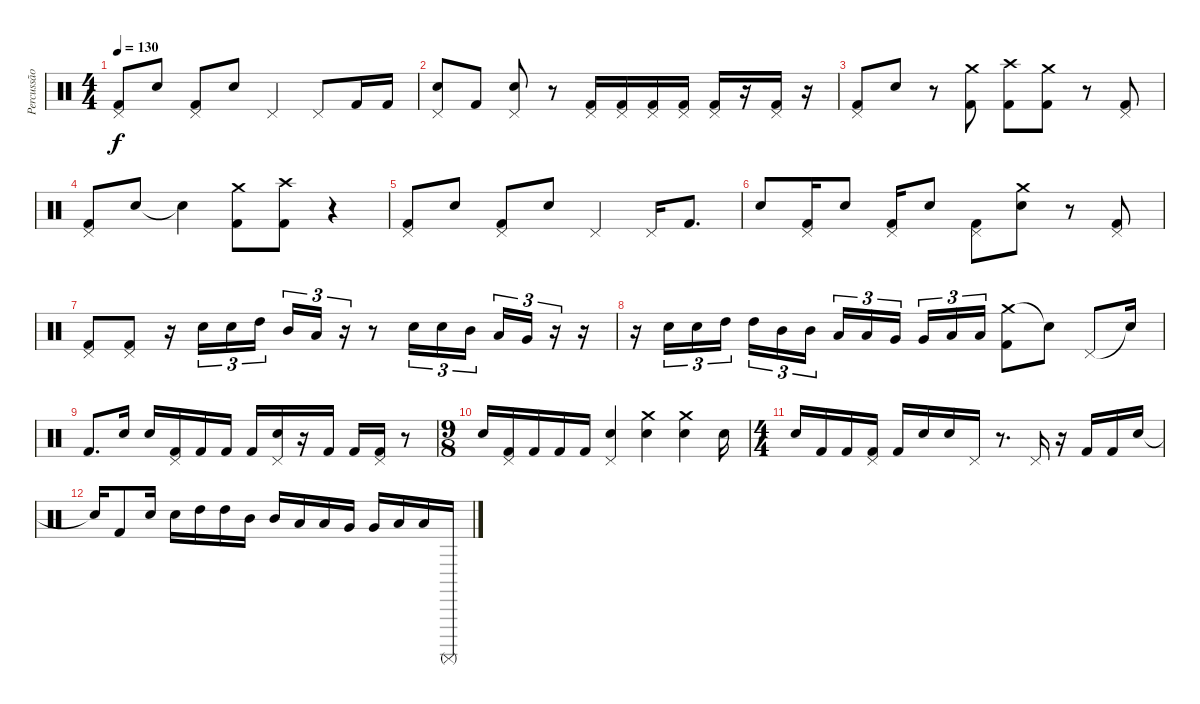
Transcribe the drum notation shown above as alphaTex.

\track ("Percussão" "Percussão") {instrument percussion}
\staff {score}
\articulation defaults
\ts (4 4)
\tempo 130
\clef neutral
\ks c
("Pedal Hi-Hat (hit)" "Kick (hit) 2").8{dy f} "Electric Snare (hit)".8 ("Pedal Hi-Hat (hit)" "Kick (hit) 2").8 "Electric Snare (hit)".8 "Pedal Hi-Hat (hit)".4 "Pedal Hi-Hat (hit)".8 "Kick (hit) 2".16 "Kick (hit) 2".16 |
("Pedal Hi-Hat (hit)" "Electric Snare (hit)").8 "Kick (hit) 2".8 ("Pedal Hi-Hat (hit)" "Electric Snare (hit)").8 r.8 ("Pedal Hi-Hat (hit)" "Kick (hit) 2").16 ("Pedal Hi-Hat (hit)" "Kick (hit) 2").16 ("Pedal Hi-Hat (hit)" "Kick (hit) 2").16 ("Pedal Hi-Hat (hit)" "Kick (hit) 2").16 ("Pedal Hi-Hat (hit)" "Kick (hit) 2").16 r.16 ("Pedal Hi-Hat (hit)" "Kick (hit) 2").16 r.16 |
("Pedal Hi-Hat (hit)" "Kick (hit) 2").8 "Electric Snare (hit)".8 r.8 ("Crash medium (hit)" "Kick (hit) 2").8 ("Crash high (hit)" "Kick (hit) 2").8 ("Crash medium (hit)" "Kick (hit) 2").8 r.8 ("Pedal Hi-Hat (hit)" "Kick (hit) 2").8 |
("Pedal Hi-Hat (hit)" "Kick (hit) 2").8 "Electric Snare (hit)".8 "Snare (hit)"{t}.4 ("Crash medium (hit)" "Kick (hit) 2").8 ("Crash high (hit)" "Kick (hit) 2").8 r.4 |
("Pedal Hi-Hat (hit)" "Kick (hit) 2").8 "Electric Snare (hit)".8 ("Pedal Hi-Hat (hit)" "Kick (hit) 2").8 "Electric Snare (hit)".8 "Pedal Hi-Hat (hit)".4 "Pedal Hi-Hat (hit)".16 "Kick (hit) 2".8{d} |
"Electric Snare (hit)".8 ("Pedal Hi-Hat (hit)" "Kick (hit) 2").16 "Electric Snare (hit)".8 ("Pedal Hi-Hat (hit)" "Kick (hit) 2").16 "Electric Snare (hit)".8 ("Pedal Hi-Hat (hit)" "Kick (hit) 2").8 ("Crash medium (hit)" "Electric Snare (hit)").8 r.8 ("Pedal Hi-Hat (hit)" "Kick (hit) 2").8 |
("Pedal Hi-Hat (hit)" "Kick (hit) 2").8 ("Pedal Hi-Hat (hit)" "Kick (hit) 2").8 r.16 "Electric Snare (hit)".16{tu (3 2)} "Electric Snare (hit)".16{tu (3 2)} "High Tom (hit)".16{tu (3 2) beam splitsecondary} "Mid Tom (hit)".16{tu (3 2)} "Low Tom (hit)".16{tu (3 2)} r.16{tu (3 2)} r.8 "Electric Snare (hit)".16{tu (3 2)} "Electric Snare (hit)".16{tu (3 2)} "Mid Tom (hit)".16{tu (3 2) beam splitsecondary} "Low Tom (hit)".16{tu (3 2)} "Very Low Tom (hit)".16{tu (3 2)} r.16{tu (3 2)} r.16 |
r.16 "Electric Snare (hit)".16{tu (3 2)} "Electric Snare (hit)".16{tu (3 2)} "High Tom (hit)".16{tu (3 2) beam splitsecondary} "High Tom (hit)".16{tu (3 2)} "Mid Tom (hit)".16{tu (3 2)} "Mid Tom (hit)".16{tu (3 2) beam splitsecondary} "Low Tom (hit)".16{tu (3 2)} "Low Tom (hit)".16{tu (3 2)} "Very Low Tom (hit)".16{tu (3 2) beam splitsecondary} "Very Low Tom (hit)".16{tu (3 2)} "Low Floor Tom (hit)".16{tu (3 2)} "Low Floor Tom (hit)".16{tu (3 2)} ("Crash medium (hit)" "Kick (hit) 2").8 "Snare (hit)"{t}.8 "Pedal Hi-Hat (hit)".8 "Snare (hit)"{t}.16 |
"Kick (hit) 2".8{d} "Electric Snare (hit)".16 "Electric Snare (hit)".16 ("Pedal Hi-Hat (hit)" "Kick (hit) 2").16 "Kick (hit) 2".16 "Kick (hit) 2".16 "Kick (hit) 2".16 ("Pedal Hi-Hat (hit)" "Electric Snare (hit)").16 r.16 "Kick (hit) 2".16 "Kick (hit) 2".16 ("Pedal Hi-Hat (hit)" "Kick (hit) 2").16 r.8 |
\ts (9 8)
"Electric Snare (hit)".16 ("Pedal Hi-Hat (hit)" "Kick (hit) 2").16 "Kick (hit) 2".16 "Kick (hit) 2".16 "Kick (hit) 2".16 ("Pedal Hi-Hat (hit)" "Electric Snare (hit)").4 ("Crash medium (hit)" "Electric Snare (hit)").4 ("Crash medium (hit)" "Electric Snare (hit)").4 "Electric Snare (hit)".16 |
\ts (4 4)
"Electric Snare (hit)".16 "Kick (hit) 2".16 "Kick (hit) 2".16 ("Pedal Hi-Hat (hit)" "Kick (hit) 2").16 "Kick (hit) 2".16 "Electric Snare (hit)".16 "Electric Snare (hit)".16 "Pedal Hi-Hat (hit)".16 r.8{d} "Pedal Hi-Hat (hit)".16 r.16 "Kick (hit) 2".16 "Kick (hit) 2".16 "Electric Snare (hit)".16 |
"Electric Snare (hit)"{t}.16 "Kick (hit) 2".8 "Electric Snare (hit)".16 "Electric Snare (hit)".16 "High Tom (hit)".16 "High Tom (hit)".16 "Mid Tom (hit)".16 "Mid Tom (hit)".16 "Low Tom (hit)".16 "Low Tom (hit)".16 "Very Low Tom (hit)".16 "Very Low Tom (hit)".16 "Low Floor Tom (hit)".16 "Low Floor Tom (hit)".16 "Surdo (mute)".16
